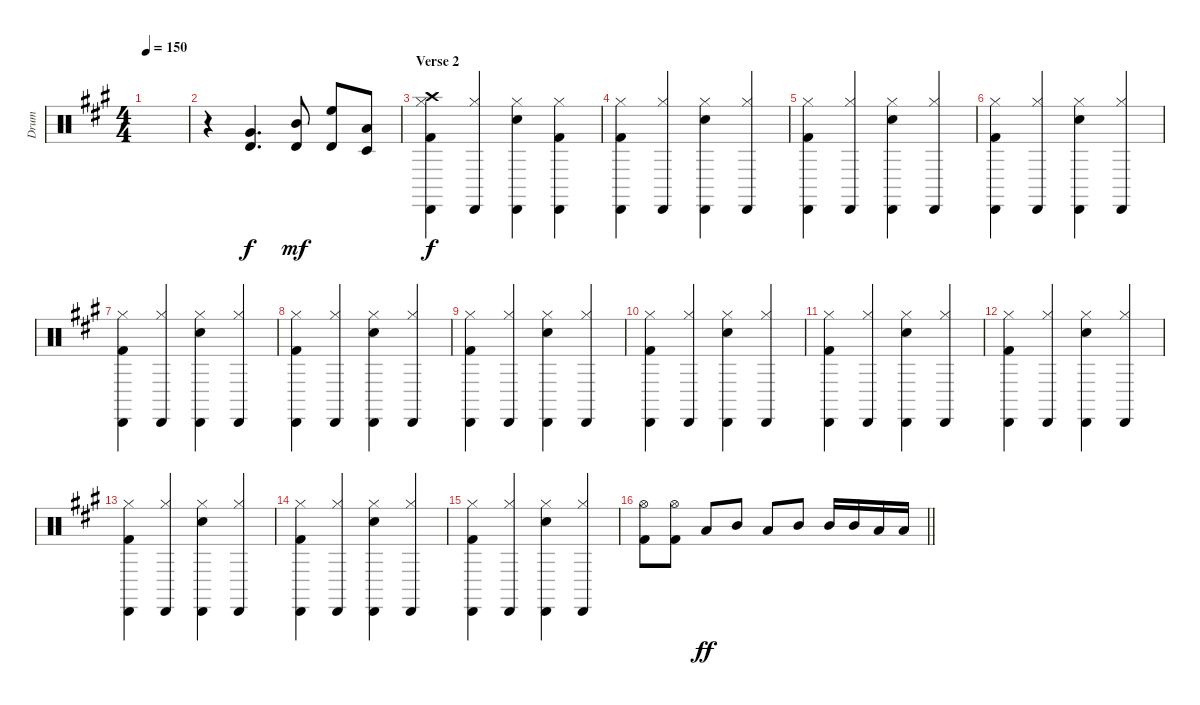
\track ("Drum " "Drum ") {instrument percussion}
\staff {score}
\articulation defaults
\ts (4 4)
\tempo 150
\clef neutral
\ks a
|
r.4 ("Very Low Tom (hit)" "Timbale high (hit)").4{d} ("Mid Tom (hit)" "Timbale high (hit)").8{dy mf} ("High Floor Tom (hit)" "Timbale high (hit)").8 ("Low Tom (hit)" "Timbale low (hit)").8 |
\section ("" "Verse 2")
("Hi-Hat (closed)" "Crash high (hit)" "Cabasa (hit)" "Kick (hit) 2").4{dy f} ("Hi-Hat (closed)" "Cabasa (hit)").4 ("Hi-Hat (closed)" "Snare (hit) 2" "Cabasa (hit)").4 ("Hi-Hat (closed)" "Cabasa (hit)" "Kick (hit) 2").4 |
("Hi-Hat (closed)" "Cabasa (hit)" "Kick (hit) 2").4 ("Hi-Hat (closed)" "Cabasa (hit)").4 ("Hi-Hat (closed)" "Snare (hit) 2" "Cabasa (hit)").4 ("Hi-Hat (closed)" "Cabasa (hit)").4 |
("Hi-Hat (closed)" "Cabasa (hit)" "Kick (hit) 2").4 ("Hi-Hat (closed)" "Cabasa (hit)").4 ("Hi-Hat (closed)" "Snare (hit) 2" "Cabasa (hit)").4 ("Hi-Hat (closed)" "Cabasa (hit)").4 |
("Hi-Hat (closed)" "Cabasa (hit)" "Kick (hit) 2").4 ("Hi-Hat (closed)" "Cabasa (hit)").4 ("Hi-Hat (closed)" "Snare (hit) 2" "Cabasa (hit)").4 ("Hi-Hat (closed)" "Cabasa (hit)").4 |
("Hi-Hat (closed)" "Cabasa (hit)" "Kick (hit) 2").4 ("Hi-Hat (closed)" "Cabasa (hit)").4 ("Hi-Hat (closed)" "Snare (hit) 2" "Cabasa (hit)").4 ("Hi-Hat (closed)" "Cabasa (hit)").4 |
("Hi-Hat (closed)" "Cabasa (hit)" "Kick (hit) 2").4 ("Hi-Hat (closed)" "Cabasa (hit)").4 ("Hi-Hat (closed)" "Snare (hit) 2" "Cabasa (hit)").4 ("Hi-Hat (closed)" "Cabasa (hit)").4 |
("Hi-Hat (closed)" "Cabasa (hit)" "Kick (hit) 2").4 ("Hi-Hat (closed)" "Cabasa (hit)").4 ("Hi-Hat (closed)" "Snare (hit) 2" "Cabasa (hit)").4 ("Hi-Hat (closed)" "Cabasa (hit)").4 |
("Hi-Hat (closed)" "Cabasa (hit)" "Kick (hit) 2").4 ("Hi-Hat (closed)" "Cabasa (hit)").4 ("Hi-Hat (closed)" "Snare (hit) 2" "Cabasa (hit)").4 ("Hi-Hat (closed)" "Cabasa (hit)").4 |
("Hi-Hat (closed)" "Cabasa (hit)" "Kick (hit) 2").4 ("Hi-Hat (closed)" "Cabasa (hit)").4 ("Hi-Hat (closed)" "Snare (hit) 2" "Cabasa (hit)").4 ("Hi-Hat (closed)" "Cabasa (hit)").4 |
("Hi-Hat (closed)" "Cabasa (hit)" "Kick (hit) 2").4 ("Hi-Hat (closed)" "Cabasa (hit)").4 ("Hi-Hat (closed)" "Snare (hit) 2" "Cabasa (hit)").4 ("Hi-Hat (closed)" "Cabasa (hit)").4 |
("Hi-Hat (closed)" "Cabasa (hit)" "Kick (hit) 2").4 ("Hi-Hat (closed)" "Cabasa (hit)").4 ("Hi-Hat (closed)" "Snare (hit) 2" "Cabasa (hit)").4 ("Hi-Hat (closed)" "Cabasa (hit)").4 |
("Hi-Hat (closed)" "Cabasa (hit)" "Kick (hit) 2").4 ("Hi-Hat (closed)" "Cabasa (hit)").4 ("Hi-Hat (closed)" "Snare (hit) 2" "Cabasa (hit)").4 ("Hi-Hat (closed)" "Cabasa (hit)").4 |
("Hi-Hat (closed)" "Cabasa (hit)" "Kick (hit) 2").4 ("Hi-Hat (closed)" "Cabasa (hit)").4 ("Hi-Hat (closed)" "Snare (hit) 2" "Cabasa (hit)").4 ("Hi-Hat (closed)" "Cabasa (hit)").4 |
\barLineRight lightlight
("Hi-Hat (open)" "Kick (hit) 2").8 ("Hi-Hat (open)" "Kick (hit) 2").8 "Low Tom (hit)".8{dy ff} "Mid Tom (hit)".8 "Low Tom (hit)".8 "Mid Tom (hit)".8 "Mid Tom (hit)".16 "Mid Tom (hit)".16 "Low Tom (hit)".16 "Low Tom (hit)".16
